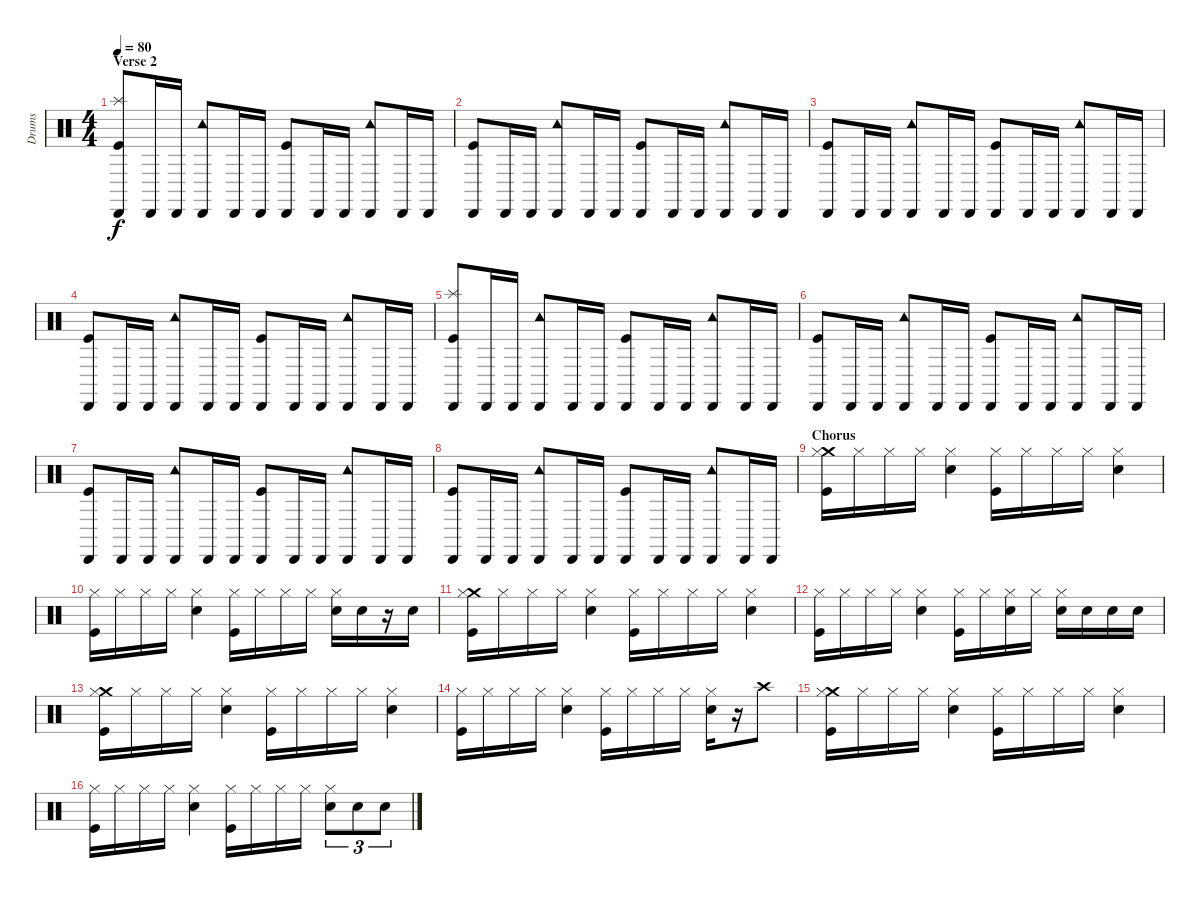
\track ("Drums" "Drums") {instrument percussion}
\staff {score}
\articulation defaults
\ts (4 4)
\section ("" "Verse 2")
\tempo 80
\clef neutral
\ks c
("Cabasa (hit)" "Splash (hit)" "Kick (hit)").8{dy f} "Cabasa (hit)".16 "Cabasa (hit)".16 ("Cabasa (hit)" "Tambourine (hit)").8 "Cabasa (hit)".16 "Cabasa (hit)".16 ("Cabasa (hit)" "Kick (hit)").8 "Cabasa (hit)".16 "Cabasa (hit)".16 ("Cabasa (hit)" "Tambourine (hit)").8 "Cabasa (hit)".16 "Cabasa (hit)".16 |
("Cabasa (hit)" "Kick (hit)").8 "Cabasa (hit)".16 "Cabasa (hit)".16 ("Cabasa (hit)" "Tambourine (hit)").8 "Cabasa (hit)".16 "Cabasa (hit)".16 ("Cabasa (hit)" "Kick (hit)").8 "Cabasa (hit)".16 "Cabasa (hit)".16 ("Cabasa (hit)" "Tambourine (hit)").8 "Cabasa (hit)".16 "Cabasa (hit)".16 |
("Cabasa (hit)" "Kick (hit)").8 "Cabasa (hit)".16 "Cabasa (hit)".16 ("Cabasa (hit)" "Tambourine (hit)").8 "Cabasa (hit)".16 "Cabasa (hit)".16 ("Cabasa (hit)" "Kick (hit)").8 "Cabasa (hit)".16 "Cabasa (hit)".16 ("Cabasa (hit)" "Tambourine (hit)").8 "Cabasa (hit)".16 "Cabasa (hit)".16 |
("Cabasa (hit)" "Kick (hit)").8 "Cabasa (hit)".16 "Cabasa (hit)".16 ("Cabasa (hit)" "Tambourine (hit)").8 "Cabasa (hit)".16 "Cabasa (hit)".16 ("Cabasa (hit)" "Kick (hit)").8 "Cabasa (hit)".16 "Cabasa (hit)".16 ("Cabasa (hit)" "Tambourine (hit)").8 "Cabasa (hit)".16 "Cabasa (hit)".16 |
("Cabasa (hit)" "Splash (hit)" "Kick (hit)").8 "Cabasa (hit)".16 "Cabasa (hit)".16 ("Cabasa (hit)" "Tambourine (hit)").8 "Cabasa (hit)".16 "Cabasa (hit)".16 ("Cabasa (hit)" "Kick (hit)").8 "Cabasa (hit)".16 "Cabasa (hit)".16 ("Cabasa (hit)" "Tambourine (hit)").8 "Cabasa (hit)".16 "Cabasa (hit)".16 |
("Cabasa (hit)" "Kick (hit)").8 "Cabasa (hit)".16 "Cabasa (hit)".16 ("Cabasa (hit)" "Tambourine (hit)").8 "Cabasa (hit)".16 "Cabasa (hit)".16 ("Cabasa (hit)" "Kick (hit)").8 "Cabasa (hit)".16 "Cabasa (hit)".16 ("Cabasa (hit)" "Tambourine (hit)").8 "Cabasa (hit)".16 "Cabasa (hit)".16 |
("Cabasa (hit)" "Kick (hit)").8 "Cabasa (hit)".16 "Cabasa (hit)".16 ("Cabasa (hit)" "Tambourine (hit)").8 "Cabasa (hit)".16 "Cabasa (hit)".16 ("Cabasa (hit)" "Kick (hit)").8 "Cabasa (hit)".16 "Cabasa (hit)".16 ("Cabasa (hit)" "Tambourine (hit)").8 "Cabasa (hit)".16 "Cabasa (hit)".16 |
("Cabasa (hit)" "Kick (hit)").8 "Cabasa (hit)".16 "Cabasa (hit)".16 ("Cabasa (hit)" "Tambourine (hit)").8 "Cabasa (hit)".16 "Cabasa (hit)".16 ("Cabasa (hit)" "Kick (hit)").8 "Cabasa (hit)".16 "Cabasa (hit)".16 ("Cabasa (hit)" "Tambourine (hit)").8 "Cabasa (hit)".16 "Cabasa (hit)".16 |
\section ("" "Chorus")
("Crash medium (hit)" "Hi-Hat (closed)" "Kick (hit)").16 "Hi-Hat (closed)".16 "Hi-Hat (closed)".16 "Hi-Hat (closed)".16 ("Hi-Hat (closed)" "Snare (hit) 2").4 ("Hi-Hat (closed)" "Kick (hit)").16 "Hi-Hat (closed)".16 "Hi-Hat (closed)".16 "Hi-Hat (closed)".16 ("Hi-Hat (closed)" "Snare (hit) 2").4 |
("Hi-Hat (closed)" "Kick (hit)").16 "Hi-Hat (closed)".16 "Hi-Hat (closed)".16 "Hi-Hat (closed)".16 ("Hi-Hat (closed)" "Snare (hit) 2").4 ("Hi-Hat (closed)" "Kick (hit)").16 "Hi-Hat (closed)".16 "Hi-Hat (closed)".16 "Hi-Hat (closed)".16 ("Hi-Hat (closed)" "Snare (hit) 2").16 "Snare (hit) 2".16 r.16 "Snare (hit) 2".16 |
("Crash medium (hit)" "Hi-Hat (closed)" "Kick (hit)").16 "Hi-Hat (closed)".16 "Hi-Hat (closed)".16 "Hi-Hat (closed)".16 ("Hi-Hat (closed)" "Snare (hit) 2").4 ("Hi-Hat (closed)" "Kick (hit)").16 "Hi-Hat (closed)".16 "Hi-Hat (closed)".16 "Hi-Hat (closed)".16 ("Hi-Hat (closed)" "Snare (hit) 2").4 |
("Hi-Hat (closed)" "Kick (hit)").16 "Hi-Hat (closed)".16 "Hi-Hat (closed)".16 "Hi-Hat (closed)".16 ("Hi-Hat (closed)" "Snare (hit) 2").4 ("Hi-Hat (closed)" "Kick (hit)").16 "Hi-Hat (closed)".16 ("Hi-Hat (closed)" "Snare (hit) 2").16 "Hi-Hat (closed)".16 ("Hi-Hat (closed)" "Snare (hit) 2").16 "Snare (hit) 2".16 "Snare (hit) 2".16 "Snare (hit) 2".16 |
("Crash medium (hit)" "Hi-Hat (closed)" "Kick (hit)").16 "Hi-Hat (closed)".16 "Hi-Hat (closed)".16 "Hi-Hat (closed)".16 ("Hi-Hat (closed)" "Snare (hit) 2").4 ("Hi-Hat (closed)" "Kick (hit)").16 "Hi-Hat (closed)".16 "Hi-Hat (closed)".16 "Hi-Hat (closed)".16 ("Hi-Hat (closed)" "Snare (hit) 2").4 |
("Hi-Hat (closed)" "Kick (hit)").16 "Hi-Hat (closed)".16 "Hi-Hat (closed)".16 "Hi-Hat (closed)".16 ("Hi-Hat (closed)" "Snare (hit) 2").4 ("Hi-Hat (closed)" "Kick (hit)").16 "Hi-Hat (closed)".16 "Hi-Hat (closed)".16 "Hi-Hat (closed)".16 ("Hi-Hat (closed)" "Snare (hit) 2").16 r.16 "Crash high (hit)".8 |
("Crash medium (hit)" "Hi-Hat (closed)" "Kick (hit)").16 "Hi-Hat (closed)".16 "Hi-Hat (closed)".16 "Hi-Hat (closed)".16 ("Hi-Hat (closed)" "Snare (hit) 2").4 ("Hi-Hat (closed)" "Kick (hit)").16 "Hi-Hat (closed)".16 "Hi-Hat (closed)".16 "Hi-Hat (closed)".16 ("Hi-Hat (closed)" "Snare (hit) 2").4 |
("Hi-Hat (closed)" "Kick (hit)").16 "Hi-Hat (closed)".16 "Hi-Hat (closed)".16 "Hi-Hat (closed)".16 ("Hi-Hat (closed)" "Snare (hit) 2").4 ("Hi-Hat (closed)" "Kick (hit)").16 "Hi-Hat (closed)".16 "Hi-Hat (closed)".16 "Hi-Hat (closed)".16 ("Hi-Hat (closed)" "Snare (hit) 2").8{tu (3 2)} "Snare (hit) 2".8{tu (3 2)} "Snare (hit) 2".8{tu (3 2)}
